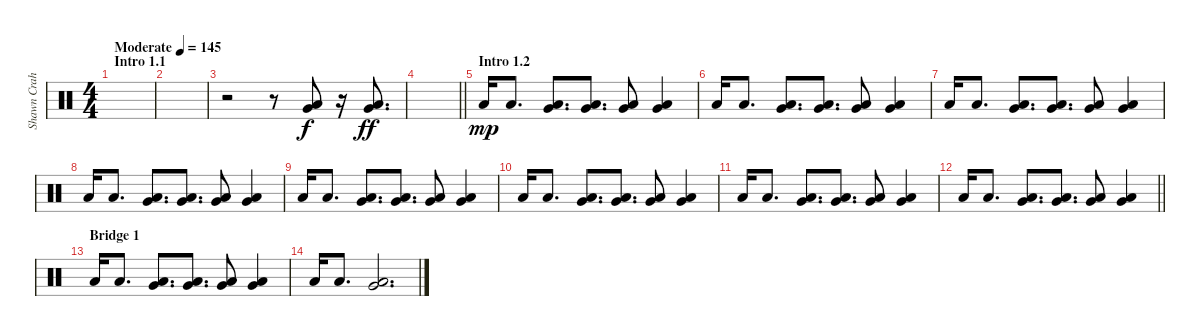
\track ("Shawn Crahan" "Shawn Crah") {instrument percussion}
\staff {score}
\articulation defaults
\ts (4 4)
\section ("" "Intro 1.1")
\tempo (145 "Moderate")
\clef neutral
\ks c
|
|
r.2 r.8 ("Very Low Tom (hit)" "Low Floor Tom (hit)").8 r.16 ("Very Low Tom (hit)" "Low Floor Tom (hit)").8{d dy ff} |
\barLineRight lightlight
|
\section ("" "Intro 1.2")
"Low Floor Tom (hit)".16{dy mp} "Low Floor Tom (hit)".8{d} ("Very Low Tom (hit)" "Low Floor Tom (hit)").8{d} ("Very Low Tom (hit)" "Low Floor Tom (hit)").8{d} ("Very Low Tom (hit)" "Low Floor Tom (hit)").8 ("Very Low Tom (hit)" "Low Floor Tom (hit)").4 |
"Low Floor Tom (hit)".16 "Low Floor Tom (hit)".8{d} ("Very Low Tom (hit)" "Low Floor Tom (hit)").8{d} ("Very Low Tom (hit)" "Low Floor Tom (hit)").8{d} ("Very Low Tom (hit)" "Low Floor Tom (hit)").8 ("Very Low Tom (hit)" "Low Floor Tom (hit)").4 |
"Low Floor Tom (hit)".16 "Low Floor Tom (hit)".8{d} ("Very Low Tom (hit)" "Low Floor Tom (hit)").8{d} ("Very Low Tom (hit)" "Low Floor Tom (hit)").8{d} ("Very Low Tom (hit)" "Low Floor Tom (hit)").8 ("Very Low Tom (hit)" "Low Floor Tom (hit)").4 |
"Low Floor Tom (hit)".16 "Low Floor Tom (hit)".8{d} ("Very Low Tom (hit)" "Low Floor Tom (hit)").8{d} ("Very Low Tom (hit)" "Low Floor Tom (hit)").8{d} ("Very Low Tom (hit)" "Low Floor Tom (hit)").8 ("Very Low Tom (hit)" "Low Floor Tom (hit)").4 |
"Low Floor Tom (hit)".16 "Low Floor Tom (hit)".8{d} ("Very Low Tom (hit)" "Low Floor Tom (hit)").8{d} ("Very Low Tom (hit)" "Low Floor Tom (hit)").8{d} ("Very Low Tom (hit)" "Low Floor Tom (hit)").8 ("Very Low Tom (hit)" "Low Floor Tom (hit)").4 |
"Low Floor Tom (hit)".16 "Low Floor Tom (hit)".8{d} ("Very Low Tom (hit)" "Low Floor Tom (hit)").8{d} ("Very Low Tom (hit)" "Low Floor Tom (hit)").8{d} ("Very Low Tom (hit)" "Low Floor Tom (hit)").8 ("Very Low Tom (hit)" "Low Floor Tom (hit)").4 |
"Low Floor Tom (hit)".16 "Low Floor Tom (hit)".8{d} ("Very Low Tom (hit)" "Low Floor Tom (hit)").8{d} ("Very Low Tom (hit)" "Low Floor Tom (hit)").8{d} ("Very Low Tom (hit)" "Low Floor Tom (hit)").8 ("Very Low Tom (hit)" "Low Floor Tom (hit)").4 |
\barLineRight lightlight "Low Floor Tom (hit)".16 "Low Floor Tom (hit)".8{d}
("Very Low Tom (hit)" "Low Floor Tom (hit)").8{d} ("Very Low Tom (hit)" "Low Floor Tom (hit)").8{d} ("Very Low Tom (hit)" "Low Floor Tom (hit)").8 ("Very Low Tom (hit)" "Low Floor Tom (hit)").4 |
\section ("" "Bridge 1")
"Low Floor Tom (hit)".16 "Low Floor Tom (hit)".8{d} ("Very Low Tom (hit)" "Low Floor Tom (hit)").8{d} ("Very Low Tom (hit)" "Low Floor Tom (hit)").8{d} ("Very Low Tom (hit)" "Low Floor Tom (hit)").8 ("Very Low Tom (hit)" "Low Floor Tom (hit)").4 |
"Low Floor Tom (hit)".16 "Low Floor Tom (hit)".8{d} ("Very Low Tom (hit)" "Low Floor Tom (hit)").2{d}
